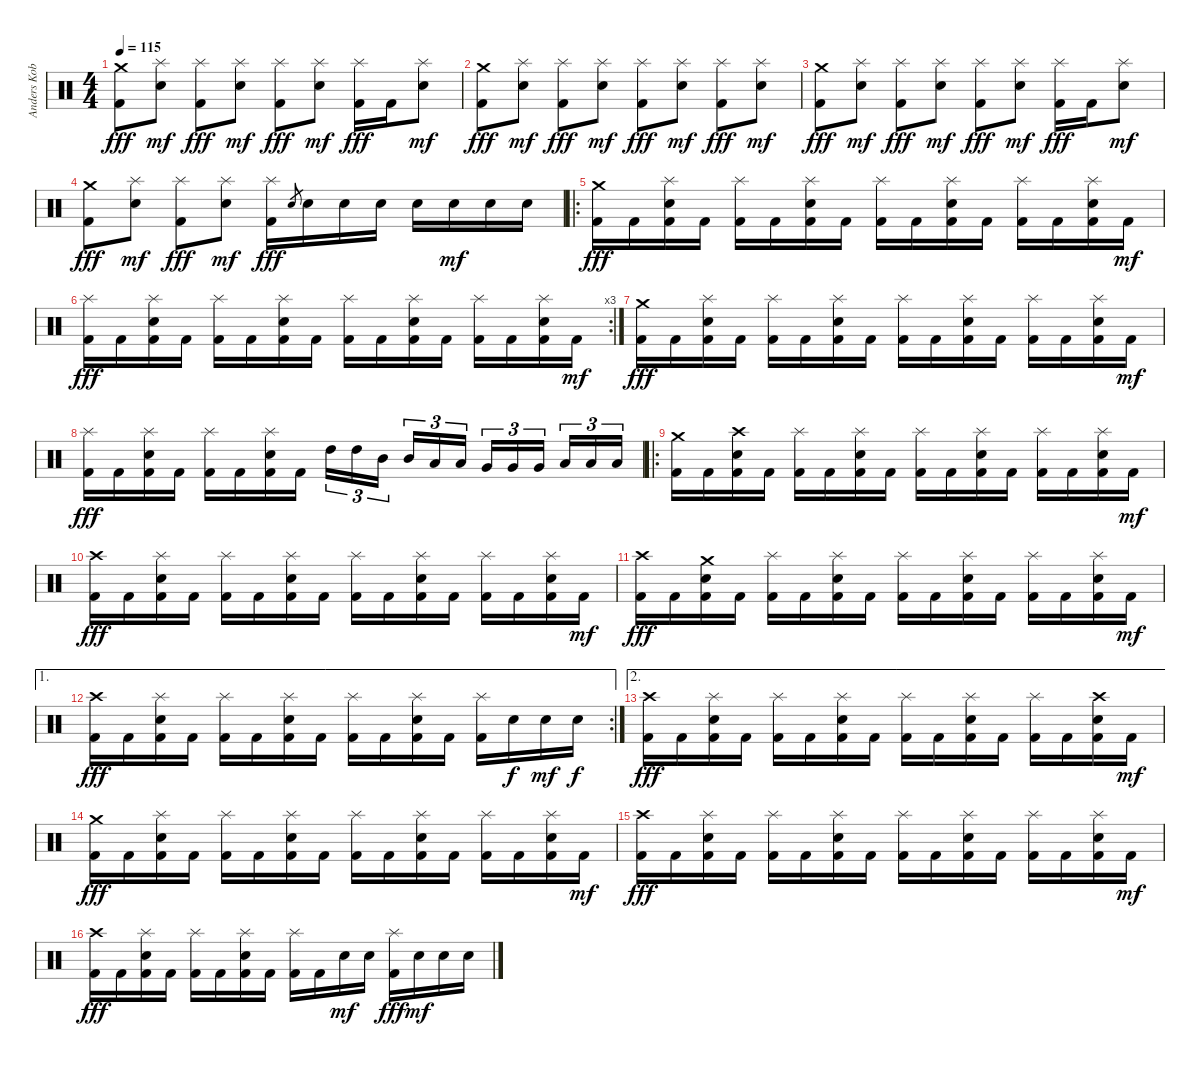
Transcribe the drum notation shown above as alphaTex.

\track ("Anders Kobro " "Anders Kob") {instrument percussion}
\staff {score}
\articulation defaults
\ts (4 4)
\tempo 115
\clef neutral
\ks c
("Crash medium (hit)" "Kick (hit) 2").8{dy fff} ("Splash (hit)" "Snare (hit) 2").8{dy mf} ("Splash (hit)" "Kick (hit) 2").8{dy fff} ("Splash (hit)" "Snare (hit) 2").8{dy mf} ("Splash (hit)" "Kick (hit) 2").8{dy fff} ("Splash (hit)" "Snare (hit) 2").8{dy mf} ("Splash (hit)" "Kick (hit) 2").16{dy fff} "Kick (hit) 2".16 ("Splash (hit)" "Snare (hit) 2").8{dy mf} |
("Crash medium (hit)" "Kick (hit) 2").8{dy fff} ("Splash (hit)" "Snare (hit) 2").8{dy mf} ("Splash (hit)" "Kick (hit) 2").8{dy fff} ("Splash (hit)" "Snare (hit) 2").8{dy mf} ("Splash (hit)" "Kick (hit) 2").8{dy fff} ("Splash (hit)" "Snare (hit) 2").8{dy mf} ("Splash (hit)" "Kick (hit) 2").8{dy fff} ("Splash (hit)" "Snare (hit) 2").8{dy mf} |
("Crash medium (hit)" "Kick (hit) 2").8{dy fff} ("Splash (hit)" "Snare (hit) 2").8{dy mf} ("Splash (hit)" "Kick (hit) 2").8{dy fff} ("Splash (hit)" "Snare (hit) 2").8{dy mf} ("Splash (hit)" "Kick (hit) 2").8{dy fff} ("Splash (hit)" "Snare (hit) 2").8{dy mf} ("Splash (hit)" "Kick (hit) 2").16{dy fff} "Kick (hit) 2".16 ("Splash (hit)" "Snare (hit) 2").8{dy mf} |
("Crash medium (hit)" "Kick (hit) 2").8{dy fff} ("Splash (hit)" "Snare (hit) 2").8{dy mf} ("Splash (hit)" "Kick (hit) 2").8{dy fff} ("Splash (hit)" "Snare (hit) 2").8{dy mf} ("Splash (hit)" "Kick (hit) 2").16{dy fff} "Snare (hit) 2".8{gr} "Snare (hit) 2".16 "Snare (hit) 2".16 "Snare (hit) 2".16 "Snare (hit) 2".16 "Snare (hit) 2".16{dy mf} "Snare (hit) 2".16 "Snare (hit) 2".16 |
\ro
("Crash medium (hit)" "Kick (hit) 2").16{dy fff} "Kick (hit) 2".16 ("Splash (hit)" "Snare (hit) 2" "Kick (hit) 2").16 "Kick (hit) 2".16 ("Splash (hit)" "Kick (hit) 2").16 "Kick (hit) 2".16 ("Splash (hit)" "Snare (hit) 2" "Kick (hit) 2").16 "Kick (hit) 2".16 ("Splash (hit)" "Kick (hit) 2").16 "Kick (hit) 2".16 ("Splash (hit)" "Snare (hit) 2" "Kick (hit) 2").16 "Kick (hit) 2".16 ("Splash (hit)" "Kick (hit) 2").16 "Kick (hit) 2".16 ("Splash (hit)" "Snare (hit) 2" "Kick (hit) 2").16 "Kick (hit) 2".16{dy mf} |
\rc 3
("Splash (hit)" "Kick (hit) 2").16{dy fff} "Kick (hit) 2".16 ("Splash (hit)" "Snare (hit) 2" "Kick (hit) 2").16 "Kick (hit) 2".16 ("Splash (hit)" "Kick (hit) 2").16 "Kick (hit) 2".16 ("Splash (hit)" "Snare (hit) 2" "Kick (hit) 2").16 "Kick (hit) 2".16 ("Splash (hit)" "Kick (hit) 2").16 "Kick (hit) 2".16 ("Splash (hit)" "Snare (hit) 2" "Kick (hit) 2").16 "Kick (hit) 2".16 ("Splash (hit)" "Kick (hit) 2").16 "Kick (hit) 2".16 ("Splash (hit)" "Snare (hit) 2" "Kick (hit) 2").16 "Kick (hit) 2".16{dy mf} |
("Crash medium (hit)" "Kick (hit) 2").16{dy fff} "Kick (hit) 2".16 ("Splash (hit)" "Snare (hit) 2" "Kick (hit) 2").16 "Kick (hit) 2".16 ("Splash (hit)" "Kick (hit) 2").16 "Kick (hit) 2".16 ("Splash (hit)" "Snare (hit) 2" "Kick (hit) 2").16 "Kick (hit) 2".16 ("Splash (hit)" "Kick (hit) 2").16 "Kick (hit) 2".16 ("Splash (hit)" "Snare (hit) 2" "Kick (hit) 2").16 "Kick (hit) 2".16 ("Splash (hit)" "Kick (hit) 2").16 "Kick (hit) 2".16 ("Splash (hit)" "Snare (hit) 2" "Kick (hit) 2").16 "Kick (hit) 2".16{dy mf} |
("Splash (hit)" "Kick (hit) 2").16{dy fff} "Kick (hit) 2".16 ("Splash (hit)" "Snare (hit) 2" "Kick (hit) 2").16 "Kick (hit) 2".16 ("Splash (hit)" "Kick (hit) 2").16 "Kick (hit) 2".16 ("Splash (hit)" "Snare (hit) 2" "Kick (hit) 2").16 "Kick (hit) 2".16 "High Tom (hit)".16{tu (3 2)} "High Tom (hit)".16{tu (3 2)} "Mid Tom (hit)".16{tu (3 2) beam splitsecondary} "Mid Tom (hit)".16{tu (3 2)} "Low Tom (hit)".16{tu (3 2)} "Low Tom (hit)".16{tu (3 2)} "Very Low Tom (hit)".16{tu (3 2)} "Very Low Tom (hit)".16{tu (3 2)} "Very Low Tom (hit)".16{tu (3 2) beam splitsecondary} "Low Tom (hit)".16{tu (3 2)} "Low Tom (hit)".16{tu (3 2)} "Low Tom (hit)".16{tu (3 2)} |
\ro
("Crash medium (hit)" "Kick (hit) 2").16 "Kick (hit) 2".16 ("Crash high (hit)" "Snare (hit) 2" "Kick (hit) 2").16 "Kick (hit) 2".16 ("Splash (hit)" "Kick (hit) 2").16 "Kick (hit) 2".16 ("Splash (hit)" "Snare (hit) 2" "Kick (hit) 2").16 "Kick (hit) 2".16 ("Splash (hit)" "Kick (hit) 2").16 "Kick (hit) 2".16 ("Splash (hit)" "Snare (hit) 2" "Kick (hit) 2").16 "Kick (hit) 2".16 ("Splash (hit)" "Kick (hit) 2").16 "Kick (hit) 2".16 ("Splash (hit)" "Snare (hit) 2" "Kick (hit) 2").16 "Kick (hit) 2".16{dy mf} |
("Crash high (hit)" "Kick (hit) 2").16{dy fff} "Kick (hit) 2".16 ("Splash (hit)" "Snare (hit) 2" "Kick (hit) 2").16 "Kick (hit) 2".16 ("Splash (hit)" "Kick (hit) 2").16 "Kick (hit) 2".16 ("Splash (hit)" "Snare (hit) 2" "Kick (hit) 2").16 "Kick (hit) 2".16 ("Splash (hit)" "Kick (hit) 2").16 "Kick (hit) 2".16 ("Splash (hit)" "Snare (hit) 2" "Kick (hit) 2").16 "Kick (hit) 2".16 ("Splash (hit)" "Kick (hit) 2").16 "Kick (hit) 2".16 ("Splash (hit)" "Snare (hit) 2" "Kick (hit) 2").16 "Kick (hit) 2".16{dy mf} |
("Crash high (hit)" "Kick (hit) 2").16{dy fff} "Kick (hit) 2".16 ("Crash medium (hit)" "Snare (hit) 2" "Kick (hit) 2").16 "Kick (hit) 2".16 ("Splash (hit)" "Kick (hit) 2").16 "Kick (hit) 2".16 ("Splash (hit)" "Snare (hit) 2" "Kick (hit) 2").16 "Kick (hit) 2".16 ("Splash (hit)" "Kick (hit) 2").16 "Kick (hit) 2".16 ("Splash (hit)" "Snare (hit) 2" "Kick (hit) 2").16 "Kick (hit) 2".16 ("Splash (hit)" "Kick (hit) 2").16 "Kick (hit) 2".16 ("Splash (hit)" "Snare (hit) 2" "Kick (hit) 2").16 "Kick (hit) 2".16{dy mf} |
\ae 1
\rc 2
("Crash high (hit)" "Kick (hit) 2").16{dy fff} "Kick (hit) 2".16 ("Splash (hit)" "Snare (hit) 2" "Kick (hit) 2").16 "Kick (hit) 2".16 ("Splash (hit)" "Kick (hit) 2").16 "Kick (hit) 2".16 ("Splash (hit)" "Snare (hit) 2" "Kick (hit) 2").16 "Kick (hit) 2".16 ("Splash (hit)" "Kick (hit) 2").16 "Kick (hit) 2".16 ("Splash (hit)" "Snare (hit) 2" "Kick (hit) 2").16 "Kick (hit) 2".16 ("Splash (hit)" "Kick (hit) 2").16 "Snare (hit) 2".16{dy f} "Snare (hit) 2".16{dy mf} "Snare (hit) 2".16{dy f} |
\ae 2
("Crash high (hit)" "Kick (hit) 2").16{dy fff} "Kick (hit) 2".16 ("Splash (hit)" "Snare (hit) 2" "Kick (hit) 2").16 "Kick (hit) 2".16 ("Splash (hit)" "Kick (hit) 2").16 "Kick (hit) 2".16 ("Splash (hit)" "Snare (hit) 2" "Kick (hit) 2").16 "Kick (hit) 2".16 ("Splash (hit)" "Kick (hit) 2").16 "Kick (hit) 2".16 ("Splash (hit)" "Snare (hit) 2" "Kick (hit) 2").16 "Kick (hit) 2".16 ("Splash (hit)" "Kick (hit) 2").16 "Kick (hit) 2".16 ("Crash high (hit)" "Snare (hit) 2" "Kick (hit) 2").16 "Kick (hit) 2".16{dy mf} |
("Crash medium (hit)" "Kick (hit) 2").16{dy fff} "Kick (hit) 2".16 ("Splash (hit)" "Snare (hit) 2" "Kick (hit) 2").16 "Kick (hit) 2".16 ("Splash (hit)" "Kick (hit) 2").16 "Kick (hit) 2".16 ("Splash (hit)" "Snare (hit) 2" "Kick (hit) 2").16 "Kick (hit) 2".16 ("Splash (hit)" "Kick (hit) 2").16 "Kick (hit) 2".16 ("Splash (hit)" "Snare (hit) 2" "Kick (hit) 2").16 "Kick (hit) 2".16 ("Splash (hit)" "Kick (hit) 2").16 "Kick (hit) 2".16 ("Splash (hit)" "Snare (hit) 2" "Kick (hit) 2").16 "Kick (hit) 2".16{dy mf} |
("Crash high (hit)" "Kick (hit) 2").16{dy fff} "Kick (hit) 2".16 ("Splash (hit)" "Snare (hit) 2" "Kick (hit) 2").16 "Kick (hit) 2".16 ("Splash (hit)" "Kick (hit) 2").16 "Kick (hit) 2".16 ("Splash (hit)" "Snare (hit) 2" "Kick (hit) 2").16 "Kick (hit) 2".16 ("Splash (hit)" "Kick (hit) 2").16 "Kick (hit) 2".16 ("Splash (hit)" "Snare (hit) 2" "Kick (hit) 2").16 "Kick (hit) 2".16 ("Splash (hit)" "Kick (hit) 2").16 "Kick (hit) 2".16 ("Splash (hit)" "Snare (hit) 2" "Kick (hit) 2").16 "Kick (hit) 2".16{dy mf} |
("Crash high (hit)" "Kick (hit) 2").16{dy fff} "Kick (hit) 2".16 ("Splash (hit)" "Snare (hit) 2" "Kick (hit) 2").16 "Kick (hit) 2".16 ("Splash (hit)" "Kick (hit) 2").16 "Kick (hit) 2".16 ("Splash (hit)" "Snare (hit) 2" "Kick (hit) 2").16 "Kick (hit) 2".16 ("Splash (hit)" "Kick (hit) 2").16 "Kick (hit) 2".16 "Snare (hit) 2".16{dy mf} "Snare (hit) 2".16 ("Splash (hit)" "Kick (hit) 2").16{dy fff} "Snare (hit) 2".16{dy mf} "Snare (hit) 2".16 "Snare (hit) 2".16
